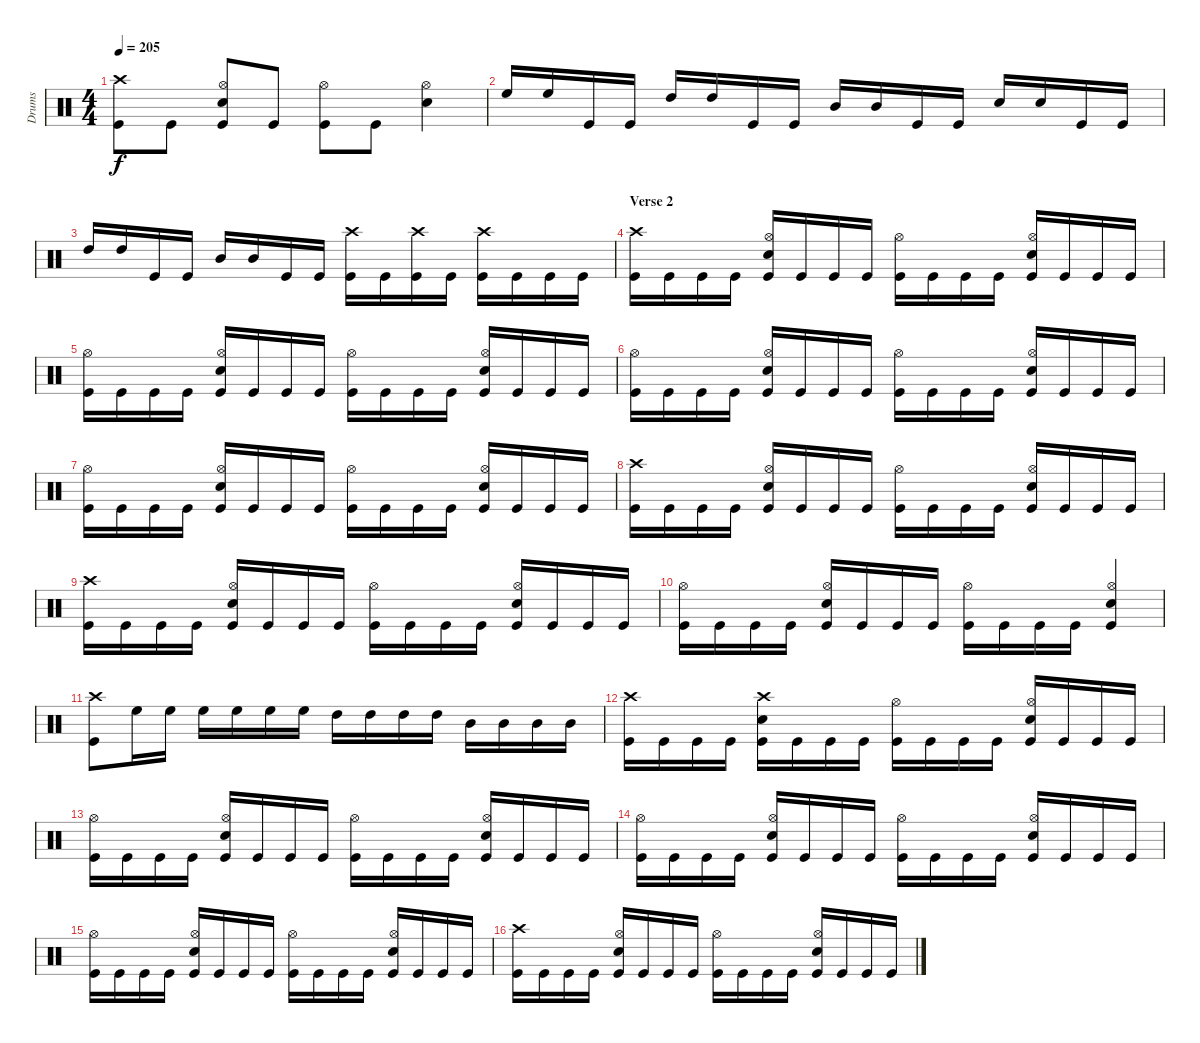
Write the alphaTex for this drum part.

\track ("Drums" "Drums") {instrument percussion}
\staff {score}
\articulation defaults
\ts (4 4)
\tempo 205
\clef neutral
\ks c
("Crash high (hit)" "Kick (hit)").8{dy f} "Kick (hit)".8 ("Hi-Hat (open)" "Snare (hit) 2" "Kick (hit)").8 "Kick (hit)".8 ("Hi-Hat (open)" "Kick (hit)").8 "Kick (hit)".8 ("Hi-Hat (open)" "Snare (hit) 2").4 |
"High Floor Tom (hit)".16 "High Floor Tom (hit)".16 "Kick (hit)".16 "Kick (hit)".16 "High Tom (hit)".16 "High Tom (hit)".16 "Kick (hit)".16 "Kick (hit)".16 "Mid Tom (hit)".16 "Mid Tom (hit)".16 "Kick (hit)".16 "Kick (hit)".16 "Snare (hit) 2".16 "Snare (hit) 2".16 "Kick (hit)".16 "Kick (hit)".16 |
"High Tom (hit)".16 "High Tom (hit)".16 "Kick (hit)".16 "Kick (hit)".16 "Mid Tom (hit)".16 "Mid Tom (hit)".16 "Kick (hit)".16 "Kick (hit)".16 ("Crash high (hit)" "Kick (hit)").16 "Kick (hit)".16 ("Crash high (hit)" "Kick (hit)").16 "Kick (hit)".16 ("Crash high (hit)" "Kick (hit)").16 "Kick (hit)".16 "Kick (hit)".16 "Kick (hit)".16 |
\section ("" "Verse 2")
("Crash high (hit)" "Kick (hit)").16 "Kick (hit)".16 "Kick (hit)".16 "Kick (hit)".16 ("Hi-Hat (open)" "Snare (hit) 2" "Kick (hit)").16 "Kick (hit)".16 "Kick (hit)".16 "Kick (hit)".16 ("Hi-Hat (open)" "Kick (hit)").16 "Kick (hit)".16 "Kick (hit)".16 "Kick (hit)".16 ("Hi-Hat (open)" "Snare (hit) 2" "Kick (hit)").16 "Kick (hit)".16 "Kick (hit)".16 "Kick (hit)".16 |
("Hi-Hat (open)" "Kick (hit)").16 "Kick (hit)".16 "Kick (hit)".16 "Kick (hit)".16 ("Hi-Hat (open)" "Snare (hit) 2" "Kick (hit)").16 "Kick (hit)".16 "Kick (hit)".16 "Kick (hit)".16 ("Hi-Hat (open)" "Kick (hit)").16 "Kick (hit)".16 "Kick (hit)".16 "Kick (hit)".16 ("Hi-Hat (open)" "Snare (hit) 2" "Kick (hit)").16 "Kick (hit)".16 "Kick (hit)".16 "Kick (hit)".16 |
("Hi-Hat (open)" "Kick (hit)").16 "Kick (hit)".16 "Kick (hit)".16 "Kick (hit)".16 ("Hi-Hat (open)" "Snare (hit) 2" "Kick (hit)").16 "Kick (hit)".16 "Kick (hit)".16 "Kick (hit)".16 ("Hi-Hat (open)" "Kick (hit)").16 "Kick (hit)".16 "Kick (hit)".16 "Kick (hit)".16 ("Hi-Hat (open)" "Snare (hit) 2" "Kick (hit)").16 "Kick (hit)".16 "Kick (hit)".16 "Kick (hit)".16 |
("Hi-Hat (open)" "Kick (hit)").16 "Kick (hit)".16 "Kick (hit)".16 "Kick (hit)".16 ("Hi-Hat (open)" "Snare (hit) 2" "Kick (hit)").16 "Kick (hit)".16 "Kick (hit)".16 "Kick (hit)".16 ("Hi-Hat (open)" "Kick (hit)").16 "Kick (hit)".16 "Kick (hit)".16 "Kick (hit)".16 ("Hi-Hat (open)" "Snare (hit) 2" "Kick (hit)").16 "Kick (hit)".16 "Kick (hit)".16 "Kick (hit)".16 |
("Crash high (hit)" "Kick (hit)").16 "Kick (hit)".16 "Kick (hit)".16 "Kick (hit)".16 ("Hi-Hat (open)" "Snare (hit) 2" "Kick (hit)").16 "Kick (hit)".16 "Kick (hit)".16 "Kick (hit)".16 ("Hi-Hat (open)" "Kick (hit)").16 "Kick (hit)".16 "Kick (hit)".16 "Kick (hit)".16 ("Hi-Hat (open)" "Snare (hit) 2" "Kick (hit)").16 "Kick (hit)".16 "Kick (hit)".16 "Kick (hit)".16 |
("Crash high (hit)" "Kick (hit)").16 "Kick (hit)".16 "Kick (hit)".16 "Kick (hit)".16 ("Hi-Hat (open)" "Snare (hit) 2" "Kick (hit)").16 "Kick (hit)".16 "Kick (hit)".16 "Kick (hit)".16 ("Hi-Hat (open)" "Kick (hit)").16 "Kick (hit)".16 "Kick (hit)".16 "Kick (hit)".16 ("Hi-Hat (open)" "Snare (hit) 2" "Kick (hit)").16 "Kick (hit)".16 "Kick (hit)".16 "Kick (hit)".16 |
("Hi-Hat (open)" "Kick (hit)").16 "Kick (hit)".16 "Kick (hit)".16 "Kick (hit)".16 ("Hi-Hat (open)" "Snare (hit) 2" "Kick (hit)").16 "Kick (hit)".16 "Kick (hit)".16 "Kick (hit)".16 ("Hi-Hat (open)" "Kick (hit)").16 "Kick (hit)".16 "Kick (hit)".16 "Kick (hit)".16 ("Hi-Hat (open)" "Snare (hit) 2" "Kick (hit)").4 |
("Crash high (hit)" "Kick (hit)").8 "High Floor Tom (hit)".16 "High Floor Tom (hit)".16 "High Floor Tom (hit)".16 "High Floor Tom (hit)".16 "High Floor Tom (hit)".16 "High Floor Tom (hit)".16 "High Tom (hit)".16 "High Tom (hit)".16 "High Tom (hit)".16 "High Tom (hit)".16 "Mid Tom (hit)".16 "Mid Tom (hit)".16 "Mid Tom (hit)".16 "Mid Tom (hit)".16 |
("Crash high (hit)" "Kick (hit)").16 "Kick (hit)".16 "Kick (hit)".16 "Kick (hit)".16 ("Crash high (hit)" "Snare (hit) 2" "Kick (hit)").16 "Kick (hit)".16 "Kick (hit)".16 "Kick (hit)".16 ("Hi-Hat (open)" "Kick (hit)").16 "Kick (hit)".16 "Kick (hit)".16 "Kick (hit)".16 ("Hi-Hat (open)" "Snare (hit) 2" "Kick (hit)").16 "Kick (hit)".16 "Kick (hit)".16 "Kick (hit)".16 |
("Hi-Hat (open)" "Kick (hit)").16 "Kick (hit)".16 "Kick (hit)".16 "Kick (hit)".16 ("Hi-Hat (open)" "Snare (hit) 2" "Kick (hit)").16 "Kick (hit)".16 "Kick (hit)".16 "Kick (hit)".16 ("Hi-Hat (open)" "Kick (hit)").16 "Kick (hit)".16 "Kick (hit)".16 "Kick (hit)".16 ("Hi-Hat (open)" "Snare (hit) 2" "Kick (hit)").16 "Kick (hit)".16 "Kick (hit)".16 "Kick (hit)".16 |
("Hi-Hat (open)" "Kick (hit)").16 "Kick (hit)".16 "Kick (hit)".16 "Kick (hit)".16 ("Hi-Hat (open)" "Snare (hit) 2" "Kick (hit)").16 "Kick (hit)".16 "Kick (hit)".16 "Kick (hit)".16 ("Hi-Hat (open)" "Kick (hit)").16 "Kick (hit)".16 "Kick (hit)".16 "Kick (hit)".16 ("Hi-Hat (open)" "Snare (hit) 2" "Kick (hit)").16 "Kick (hit)".16 "Kick (hit)".16 "Kick (hit)".16 |
("Hi-Hat (open)" "Kick (hit)").16 "Kick (hit)".16 "Kick (hit)".16 "Kick (hit)".16 ("Hi-Hat (open)" "Snare (hit) 2" "Kick (hit)").16 "Kick (hit)".16 "Kick (hit)".16 "Kick (hit)".16 ("Hi-Hat (open)" "Kick (hit)").16 "Kick (hit)".16 "Kick (hit)".16 "Kick (hit)".16 ("Hi-Hat (open)" "Snare (hit) 2" "Kick (hit)").16 "Kick (hit)".16 "Kick (hit)".16 "Kick (hit)".16 |
("Crash high (hit)" "Kick (hit)").16 "Kick (hit)".16 "Kick (hit)".16 "Kick (hit)".16 ("Hi-Hat (open)" "Snare (hit) 2" "Kick (hit)").16 "Kick (hit)".16 "Kick (hit)".16 "Kick (hit)".16 ("Hi-Hat (open)" "Kick (hit)").16 "Kick (hit)".16 "Kick (hit)".16 "Kick (hit)".16 ("Hi-Hat (open)" "Snare (hit) 2" "Kick (hit)").16 "Kick (hit)".16 "Kick (hit)".16 "Kick (hit)".16
